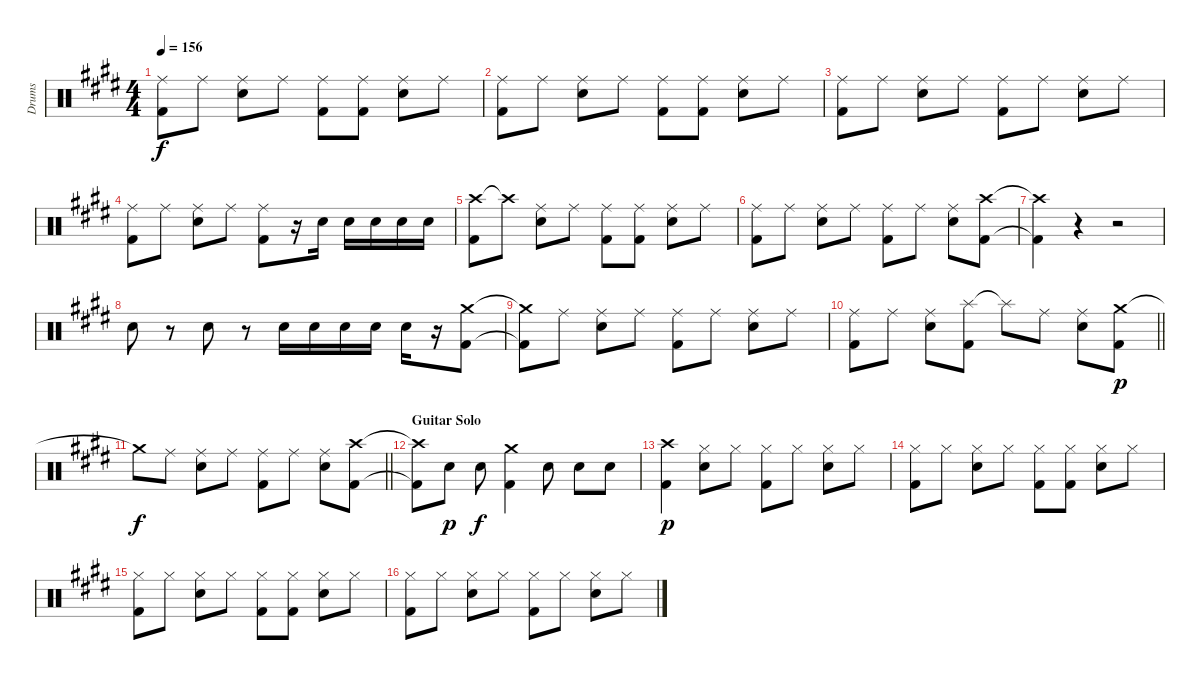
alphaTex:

\track ("Drums" "Drums") {instrument percussion}
\staff {score}
\articulation defaults
\ts (4 4)
\tempo 156
\clef neutral
\ks c#minor
("Ride (middle)" "Kick (hit) 2").8{dy f} "Ride (middle)".8 ("Ride (middle)" "Electric Snare (hit)").8 "Ride (middle)".8 ("Ride (middle)" "Kick (hit) 2").8 ("Ride (middle)" "Kick (hit) 2").8 ("Ride (middle)" "Electric Snare (hit)").8 "Ride (middle)".8 |
\ks e
("Ride (middle)" "Kick (hit) 2").8 "Ride (middle)".8 ("Ride (middle)" "Electric Snare (hit)").8 "Ride (middle)".8 ("Ride (middle)" "Kick (hit) 2").8 ("Ride (middle)" "Kick (hit) 2").8 ("Ride (middle)" "Electric Snare (hit)").8 "Ride (middle)".8 |
\ks c#minor
("Ride (middle)" "Kick (hit) 2").8 "Ride (middle)".8 ("Ride (middle)" "Electric Snare (hit)").8 "Ride (middle)".8 ("Ride (middle)" "Kick (hit) 2").8 "Ride (middle)".8 ("Ride (middle)" "Electric Snare (hit)").8 "Ride (middle)".8 |
("Ride (middle)" "Kick (hit) 2").8 "Ride (middle)".8 ("Ride (middle)" "Electric Snare (hit)").8 "Ride (middle)".8 ("Ride (middle)" "Kick (hit) 2").8 r.16 "Electric Snare (hit)".16 "Electric Snare (hit)".16 "Electric Snare (hit)".16 "Electric Snare (hit)".16 "Electric Snare (hit)".16 |
("Crash high (hit)" "Kick (hit) 2").8 "Crash high (hit)"{t}.8 ("Ride (middle)" "Electric Snare (hit)").8 "Ride (middle)".8 ("Ride (middle)" "Kick (hit) 2").8 ("Ride (middle)" "Kick (hit) 2").8 ("Ride (middle)" "Electric Snare (hit)").8 "Ride (middle)".8 |
\ks e
("Ride (middle)" "Kick (hit) 2").8 "Ride (middle)".8 ("Ride (middle)" "Electric Snare (hit)").8 "Ride (middle)".8 ("Ride (middle)" "Kick (hit) 2").8 "Ride (middle)".8 ("Ride (middle)" "Electric Snare (hit)").8 ("Crash high (hit)" "Kick (hit) 2").8 |
\ks c#minor
("Crash high (hit)"{t} "Kick (hit) 2"{t}).4 r.4 r.2 |
\ks e "Electric Snare (hit)".8
r.8 "Electric Snare (hit)".8 r.8 "Electric Snare (hit)".16 "Electric Snare (hit)".16 "Electric Snare (hit)".16 "Electric Snare (hit)".16 "Electric Snare (hit)".16 r.16 ("Crash medium (hit)" "Kick (hit) 2").8 |
\ks c#minor
("Crash medium (hit)"{t} "Kick (hit) 2"{t}).8 "Ride (middle)".8 ("Ride (middle)" "Electric Snare (hit)").8 "Ride (middle)".8 ("Ride (middle)" "Kick (hit) 2").8 "Ride (middle)".8 ("Ride (middle)" "Electric Snare (hit)").8 "Ride (middle)".8 |
\barLineRight lightlight
("Ride (middle)" "Kick (hit) 2").8 "Ride (middle)".8 ("Ride (middle)" "Electric Snare (hit)").8 ("Splash (hit)" "Kick (hit) 2").8 "Splash (hit)"{t}.8 "Ride (middle)".8 ("Ride (middle)" "Electric Snare (hit)").8 ("Crash medium (hit)" "Kick (hit) 2").8{dy p} |
\barLineRight lightlight
\ks e "Crash medium (hit)"{t}.8{dy f} "Ride (middle)".8
("Ride (middle)" "Electric Snare (hit)").8 "Ride (middle)".8 ("Ride (middle)" "Kick (hit) 2").8 "Ride (middle)".8 ("Ride (middle)" "Electric Snare (hit)").8 ("Crash high (hit)" "Kick (hit) 2").8 |
\section ("" "Guitar Solo")
\ks c#minor
("Crash high (hit)"{t} "Kick (hit) 2"{t}).8 "Electric Snare (hit)".8{dy p} "Electric Snare (hit)".8{dy f} ("Crash medium (hit)" "Kick (hit) 2").4 "Electric Snare (hit)".8 "Electric Snare (hit)".8 "Electric Snare (hit)".8 |
\ks e
("Crash high (hit)" "Kick (hit) 2").4{dy p} ("Hi-Hat (closed)" "Electric Snare (hit)").8 "Hi-Hat (closed)".8 ("Hi-Hat (closed)" "Kick (hit) 2").8 "Hi-Hat (closed)".8 ("Hi-Hat (closed)" "Electric Snare (hit)").8 "Hi-Hat (closed)".8 |
\ks c#minor
("Hi-Hat (closed)" "Kick (hit) 2").8 "Hi-Hat (closed)".8 ("Hi-Hat (closed)" "Electric Snare (hit)").8 "Hi-Hat (closed)".8 ("Hi-Hat (closed)" "Kick (hit) 2").8 ("Hi-Hat (closed)" "Kick (hit) 2").8 ("Hi-Hat (closed)" "Electric Snare (hit)").8 "Hi-Hat (closed)".8 |
("Hi-Hat (closed)" "Kick (hit) 2").8 "Hi-Hat (closed)".8 ("Hi-Hat (closed)" "Electric Snare (hit)").8 "Hi-Hat (closed)".8 ("Hi-Hat (closed)" "Kick (hit) 2").8 ("Hi-Hat (closed)" "Kick (hit) 2").8 ("Hi-Hat (closed)" "Electric Snare (hit)").8 "Hi-Hat (closed)".8 |
("Hi-Hat (closed)" "Kick (hit) 2").8 "Hi-Hat (closed)".8 ("Hi-Hat (closed)" "Electric Snare (hit)").8 "Hi-Hat (closed)".8 ("Hi-Hat (closed)" "Kick (hit) 2").8 "Hi-Hat (closed)".8 ("Hi-Hat (closed)" "Electric Snare (hit)").8 "Hi-Hat (closed)".8
